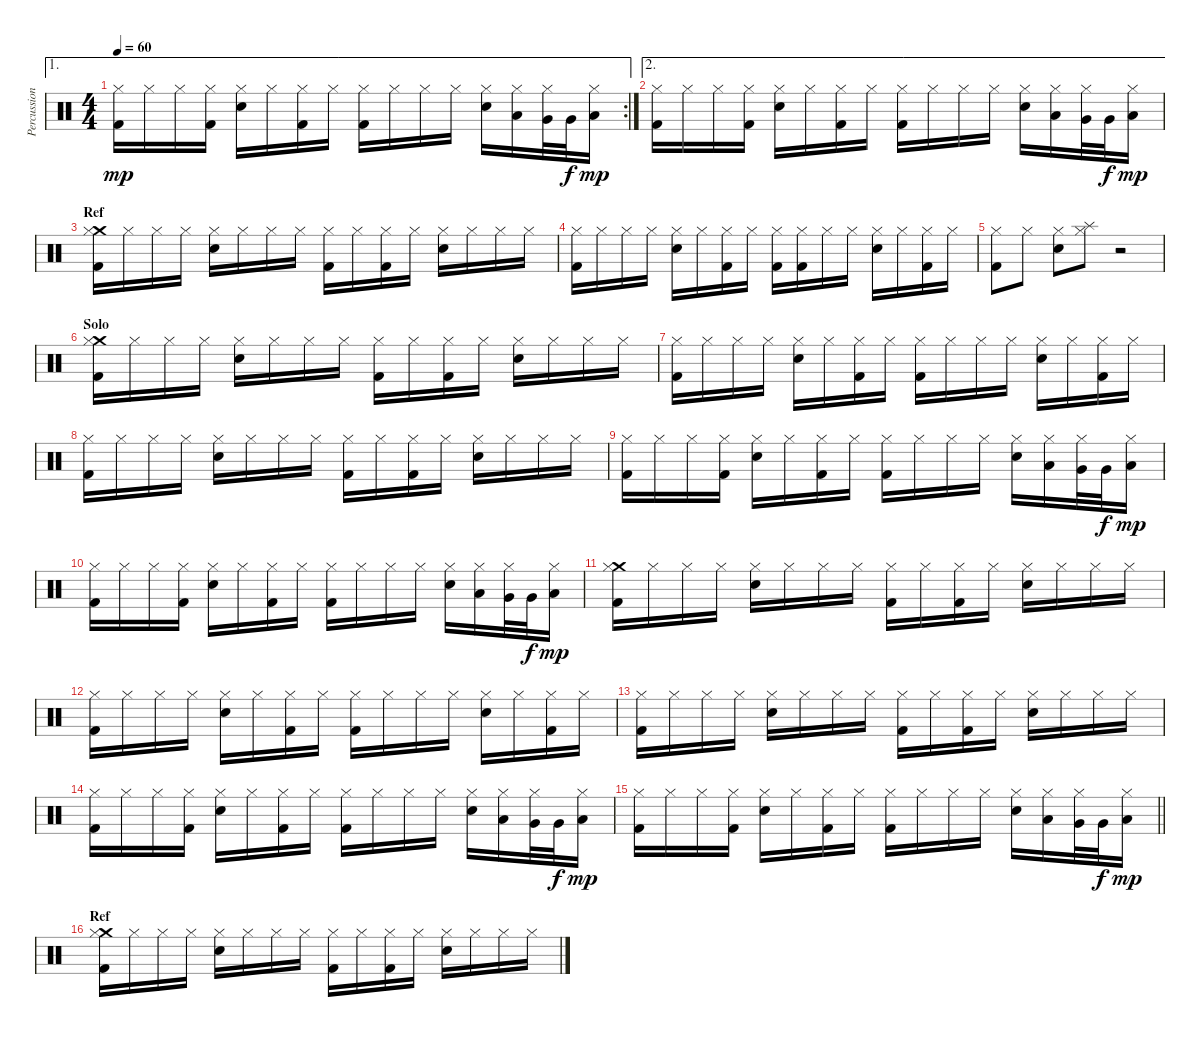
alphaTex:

\track ("Percussions" "Percussion") {instrument percussion}
\staff {score}
\articulation defaults
\ae 1
\rc 2
\ts (4 4)
\tempo 60
\clef neutral
\ks c
("Hi-Hat (closed)" "Kick (hit) 2").16{dy mp} "Hi-Hat (closed)".16 "Hi-Hat (closed)".16 ("Hi-Hat (closed)" "Kick (hit) 2").16 ("Hi-Hat (closed)" "Snare (hit) 2").16 "Hi-Hat (closed)".16 ("Hi-Hat (closed)" "Kick (hit) 2").16 "Hi-Hat (closed)".16 ("Hi-Hat (closed)" "Kick (hit) 2").16 "Hi-Hat (closed)".16 "Hi-Hat (closed)".16 "Hi-Hat (closed)".16 ("Hi-Hat (closed)" "Snare (hit) 2").16 ("Hi-Hat (closed)" "Low Tom (hit)").16 ("Hi-Hat (closed)" "Very Low Tom (hit)").32 "Very Low Tom (hit)".32{dy f} ("Hi-Hat (closed)" "Low Floor Tom (hit)").16{dy mp} |
\ae 2
("Hi-Hat (closed)" "Kick (hit) 2").16 "Hi-Hat (closed)".16 "Hi-Hat (closed)".16 ("Hi-Hat (closed)" "Kick (hit) 2").16 ("Hi-Hat (closed)" "Snare (hit) 2").16 "Hi-Hat (closed)".16 ("Hi-Hat (closed)" "Kick (hit) 2").16 "Hi-Hat (closed)".16 ("Hi-Hat (closed)" "Kick (hit) 2").16 "Hi-Hat (closed)".16 "Hi-Hat (closed)".16 "Hi-Hat (closed)".16 ("Hi-Hat (closed)" "Snare (hit) 2").16 ("Hi-Hat (closed)" "Low Tom (hit)").16 ("Hi-Hat (closed)" "Very Low Tom (hit)").32 "Very Low Tom (hit)".32{dy f} ("Hi-Hat (closed)" "Low Floor Tom (hit)").16{dy mp} |
\section ("" "Ref")
("Crash medium (hit)" "Hi-Hat (closed)" "Kick (hit) 2").16 "Hi-Hat (closed)".16 "Hi-Hat (closed)".16 "Hi-Hat (closed)".16 ("Hi-Hat (closed)" "Snare (hit) 2").16 "Hi-Hat (closed)".16 "Hi-Hat (closed)".16 "Hi-Hat (closed)".16 ("Hi-Hat (closed)" "Kick (hit) 2").16 "Hi-Hat (closed)".16 ("Hi-Hat (closed)" "Kick (hit) 2").16 "Hi-Hat (closed)".16 ("Hi-Hat (closed)" "Snare (hit) 2").16 "Hi-Hat (closed)".16 "Hi-Hat (closed)".16 "Hi-Hat (closed)".16 |
("Hi-Hat (closed)" "Kick (hit) 2").16 "Hi-Hat (closed)".16 "Hi-Hat (closed)".16 "Hi-Hat (closed)".16 ("Hi-Hat (closed)" "Snare (hit) 2").16 "Hi-Hat (closed)".16 ("Hi-Hat (closed)" "Kick (hit) 2").16 "Hi-Hat (closed)".16 ("Hi-Hat (closed)" "Kick (hit) 2").16 ("Hi-Hat (closed)" "Kick (hit) 2").16 "Hi-Hat (closed)".16 "Hi-Hat (closed)".16 ("Hi-Hat (closed)" "Snare (hit) 2").16 "Hi-Hat (closed)".16 ("Hi-Hat (closed)" "Kick (hit) 2").16 "Hi-Hat (closed)".16 |
("Hi-Hat (closed)" "Kick (hit) 2").8 "Hi-Hat (closed)".8 ("Hi-Hat (closed)" "Snare (hit) 2").8 ("Hi-Hat (closed)" "Splash (hit)").8 r.2 |
\section ("" "Solo")
("Crash medium (hit)" "Hi-Hat (closed)" "Kick (hit) 2").16 "Hi-Hat (closed)".16 "Hi-Hat (closed)".16 "Hi-Hat (closed)".16 ("Hi-Hat (closed)" "Snare (hit) 2").16 "Hi-Hat (closed)".16 "Hi-Hat (closed)".16 "Hi-Hat (closed)".16 ("Hi-Hat (closed)" "Kick (hit) 2").16 "Hi-Hat (closed)".16 ("Hi-Hat (closed)" "Kick (hit) 2").16 "Hi-Hat (closed)".16 ("Hi-Hat (closed)" "Snare (hit) 2").16 "Hi-Hat (closed)".16 "Hi-Hat (closed)".16 "Hi-Hat (closed)".16 |
("Hi-Hat (closed)" "Kick (hit) 2").16 "Hi-Hat (closed)".16 "Hi-Hat (closed)".16 "Hi-Hat (closed)".16 ("Hi-Hat (closed)" "Snare (hit) 2").16 "Hi-Hat (closed)".16 ("Hi-Hat (closed)" "Kick (hit) 2").16 "Hi-Hat (closed)".16 ("Hi-Hat (closed)" "Kick (hit) 2").16 "Hi-Hat (closed)".16 "Hi-Hat (closed)".16 "Hi-Hat (closed)".16 ("Hi-Hat (closed)" "Snare (hit) 2").16 "Hi-Hat (closed)".16 ("Hi-Hat (closed)" "Kick (hit) 2").16 "Hi-Hat (closed)".16 |
("Hi-Hat (closed)" "Kick (hit) 2").16 "Hi-Hat (closed)".16 "Hi-Hat (closed)".16 "Hi-Hat (closed)".16 ("Hi-Hat (closed)" "Snare (hit) 2").16 "Hi-Hat (closed)".16 "Hi-Hat (closed)".16 "Hi-Hat (closed)".16 ("Hi-Hat (closed)" "Kick (hit) 2").16 "Hi-Hat (closed)".16 ("Hi-Hat (closed)" "Kick (hit) 2").16 "Hi-Hat (closed)".16 ("Hi-Hat (closed)" "Snare (hit) 2").16 "Hi-Hat (closed)".16 "Hi-Hat (closed)".16 "Hi-Hat (closed)".16 |
("Hi-Hat (closed)" "Kick (hit) 2").16 "Hi-Hat (closed)".16 "Hi-Hat (closed)".16 ("Hi-Hat (closed)" "Kick (hit) 2").16 ("Hi-Hat (closed)" "Snare (hit) 2").16 "Hi-Hat (closed)".16 ("Hi-Hat (closed)" "Kick (hit) 2").16 "Hi-Hat (closed)".16 ("Hi-Hat (closed)" "Kick (hit) 2").16 "Hi-Hat (closed)".16 "Hi-Hat (closed)".16 "Hi-Hat (closed)".16 ("Hi-Hat (closed)" "Snare (hit) 2").16 ("Hi-Hat (closed)" "Low Tom (hit)").16 ("Hi-Hat (closed)" "Very Low Tom (hit)").32 "Very Low Tom (hit)".32{dy f} ("Hi-Hat (closed)" "Low Floor Tom (hit)").16{dy mp} |
("Hi-Hat (closed)" "Kick (hit) 2").16 "Hi-Hat (closed)".16 "Hi-Hat (closed)".16 ("Hi-Hat (closed)" "Kick (hit) 2").16 ("Hi-Hat (closed)" "Snare (hit) 2").16 "Hi-Hat (closed)".16 ("Hi-Hat (closed)" "Kick (hit) 2").16 "Hi-Hat (closed)".16 ("Hi-Hat (closed)" "Kick (hit) 2").16 "Hi-Hat (closed)".16 "Hi-Hat (closed)".16 "Hi-Hat (closed)".16 ("Hi-Hat (closed)" "Snare (hit) 2").16 ("Hi-Hat (closed)" "Low Tom (hit)").16 ("Hi-Hat (closed)" "Very Low Tom (hit)").32 "Very Low Tom (hit)".32{dy f} ("Hi-Hat (closed)" "Low Floor Tom (hit)").16{dy mp} |
("Crash medium (hit)" "Hi-Hat (closed)" "Kick (hit) 2").16 "Hi-Hat (closed)".16 "Hi-Hat (closed)".16 "Hi-Hat (closed)".16 ("Hi-Hat (closed)" "Snare (hit) 2").16 "Hi-Hat (closed)".16 "Hi-Hat (closed)".16 "Hi-Hat (closed)".16 ("Hi-Hat (closed)" "Kick (hit) 2").16 "Hi-Hat (closed)".16 ("Hi-Hat (closed)" "Kick (hit) 2").16 "Hi-Hat (closed)".16 ("Hi-Hat (closed)" "Snare (hit) 2").16 "Hi-Hat (closed)".16 "Hi-Hat (closed)".16 "Hi-Hat (closed)".16 |
("Hi-Hat (closed)" "Kick (hit) 2").16 "Hi-Hat (closed)".16 "Hi-Hat (closed)".16 "Hi-Hat (closed)".16 ("Hi-Hat (closed)" "Snare (hit) 2").16 "Hi-Hat (closed)".16 ("Hi-Hat (closed)" "Kick (hit) 2").16 "Hi-Hat (closed)".16 ("Hi-Hat (closed)" "Kick (hit) 2").16 "Hi-Hat (closed)".16 "Hi-Hat (closed)".16 "Hi-Hat (closed)".16 ("Hi-Hat (closed)" "Snare (hit) 2").16 "Hi-Hat (closed)".16 ("Hi-Hat (closed)" "Kick (hit) 2").16 "Hi-Hat (closed)".16 |
("Hi-Hat (closed)" "Kick (hit) 2").16 "Hi-Hat (closed)".16 "Hi-Hat (closed)".16 "Hi-Hat (closed)".16 ("Hi-Hat (closed)" "Snare (hit) 2").16 "Hi-Hat (closed)".16 "Hi-Hat (closed)".16 "Hi-Hat (closed)".16 ("Hi-Hat (closed)" "Kick (hit) 2").16 "Hi-Hat (closed)".16 ("Hi-Hat (closed)" "Kick (hit) 2").16 "Hi-Hat (closed)".16 ("Hi-Hat (closed)" "Snare (hit) 2").16 "Hi-Hat (closed)".16 "Hi-Hat (closed)".16 "Hi-Hat (closed)".16 |
("Hi-Hat (closed)" "Kick (hit) 2").16 "Hi-Hat (closed)".16 "Hi-Hat (closed)".16 ("Hi-Hat (closed)" "Kick (hit) 2").16 ("Hi-Hat (closed)" "Snare (hit) 2").16 "Hi-Hat (closed)".16 ("Hi-Hat (closed)" "Kick (hit) 2").16 "Hi-Hat (closed)".16 ("Hi-Hat (closed)" "Kick (hit) 2").16 "Hi-Hat (closed)".16 "Hi-Hat (closed)".16 "Hi-Hat (closed)".16 ("Hi-Hat (closed)" "Snare (hit) 2").16 ("Hi-Hat (closed)" "Low Tom (hit)").16 ("Hi-Hat (closed)" "Very Low Tom (hit)").32 "Very Low Tom (hit)".32{dy f} ("Hi-Hat (closed)" "Low Floor Tom (hit)").16{dy mp} |
\barLineRight lightlight
("Hi-Hat (closed)" "Kick (hit) 2").16 "Hi-Hat (closed)".16 "Hi-Hat (closed)".16 ("Hi-Hat (closed)" "Kick (hit) 2").16 ("Hi-Hat (closed)" "Snare (hit) 2").16 "Hi-Hat (closed)".16 ("Hi-Hat (closed)" "Kick (hit) 2").16 "Hi-Hat (closed)".16 ("Hi-Hat (closed)" "Kick (hit) 2").16 "Hi-Hat (closed)".16 "Hi-Hat (closed)".16 "Hi-Hat (closed)".16 ("Hi-Hat (closed)" "Snare (hit) 2").16 ("Hi-Hat (closed)" "Low Tom (hit)").16 ("Hi-Hat (closed)" "Very Low Tom (hit)").32 "Very Low Tom (hit)".32{dy f} ("Hi-Hat (closed)" "Low Floor Tom (hit)").16{dy mp} |
\section ("" "Ref")
("Crash medium (hit)" "Hi-Hat (closed)" "Kick (hit) 2").16 "Hi-Hat (closed)".16 "Hi-Hat (closed)".16 "Hi-Hat (closed)".16 ("Hi-Hat (closed)" "Snare (hit) 2").16 "Hi-Hat (closed)".16 "Hi-Hat (closed)".16 "Hi-Hat (closed)".16 ("Hi-Hat (closed)" "Kick (hit) 2").16 "Hi-Hat (closed)".16 ("Hi-Hat (closed)" "Kick (hit) 2").16 "Hi-Hat (closed)".16 ("Hi-Hat (closed)" "Snare (hit) 2").16 "Hi-Hat (closed)".16 "Hi-Hat (closed)".16 "Hi-Hat (closed)".16
